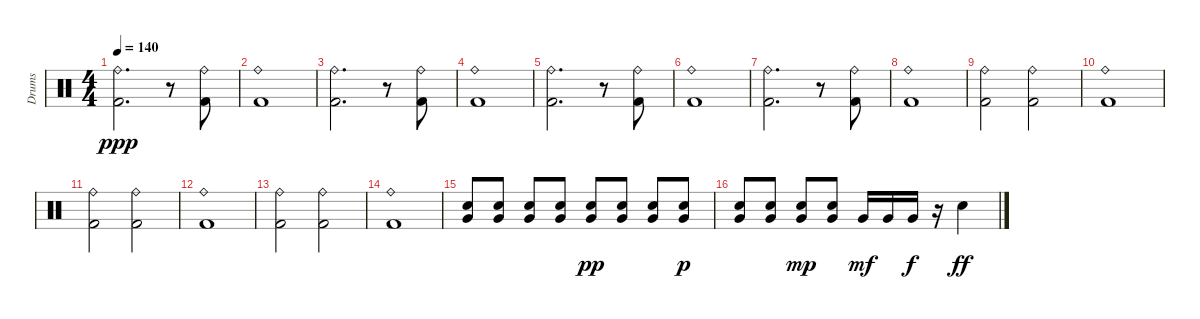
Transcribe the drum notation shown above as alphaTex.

\track ("Drums" "Drums") {instrument percussion}
\staff {score}
\articulation defaults
\ts (4 4)
\tempo 140
\clef neutral
\ks c
("Ride (bell)" "Kick (hit) 2").2{d dy ppp} r.8 ("Ride (bell)" "Kick (hit) 2").8 |
("Ride (bell)" "Kick (hit) 2").1 |
("Ride (bell)" "Kick (hit) 2").2{d} r.8 ("Ride (bell)" "Kick (hit) 2").8 |
("Ride (bell)" "Kick (hit) 2").1 |
("Ride (bell)" "Kick (hit) 2").2{d} r.8 ("Ride (bell)" "Kick (hit) 2").8 |
("Ride (bell)" "Kick (hit) 2").1 |
("Ride (bell)" "Kick (hit) 2").2{d} r.8 ("Ride (bell)" "Kick (hit) 2").8 |
("Ride (bell)" "Kick (hit) 2").1 |
("Ride (bell)" "Kick (hit) 2").2 ("Ride (bell)" "Kick (hit) 2").2 |
("Ride (bell)" "Kick (hit) 2").1 |
("Ride (bell)" "Kick (hit) 2").2 ("Ride (bell)" "Kick (hit) 2").2 |
("Ride (bell)" "Kick (hit) 2").1 |
("Ride (bell)" "Kick (hit) 2").2 ("Ride (bell)" "Kick (hit) 2").2 |
("Ride (bell)" "Kick (hit) 2").1 |
("Very Low Tom (hit)" "Snare (hit) 2").8 ("Very Low Tom (hit)" "Snare (hit) 2").8 ("Very Low Tom (hit)" "Snare (hit) 2").8 ("Very Low Tom (hit)" "Snare (hit) 2").8 ("Very Low Tom (hit)" "Snare (hit) 2").8{dy pp} ("Very Low Tom (hit)" "Snare (hit) 2").8 ("Very Low Tom (hit)" "Snare (hit) 2").8 ("Very Low Tom (hit)" "Snare (hit) 2").8{dy p} |
("Very Low Tom (hit)" "Snare (hit) 2").8 ("Very Low Tom (hit)" "Snare (hit) 2").8 ("Very Low Tom (hit)" "Snare (hit) 2").8{dy mp} ("Very Low Tom (hit)" "Snare (hit) 2").8 "Very Low Tom (hit)".16{dy mf} "Very Low Tom (hit)".16 "Very Low Tom (hit)".16{dy f} r.16 "Snare (hit) 2".4{dy ff}
